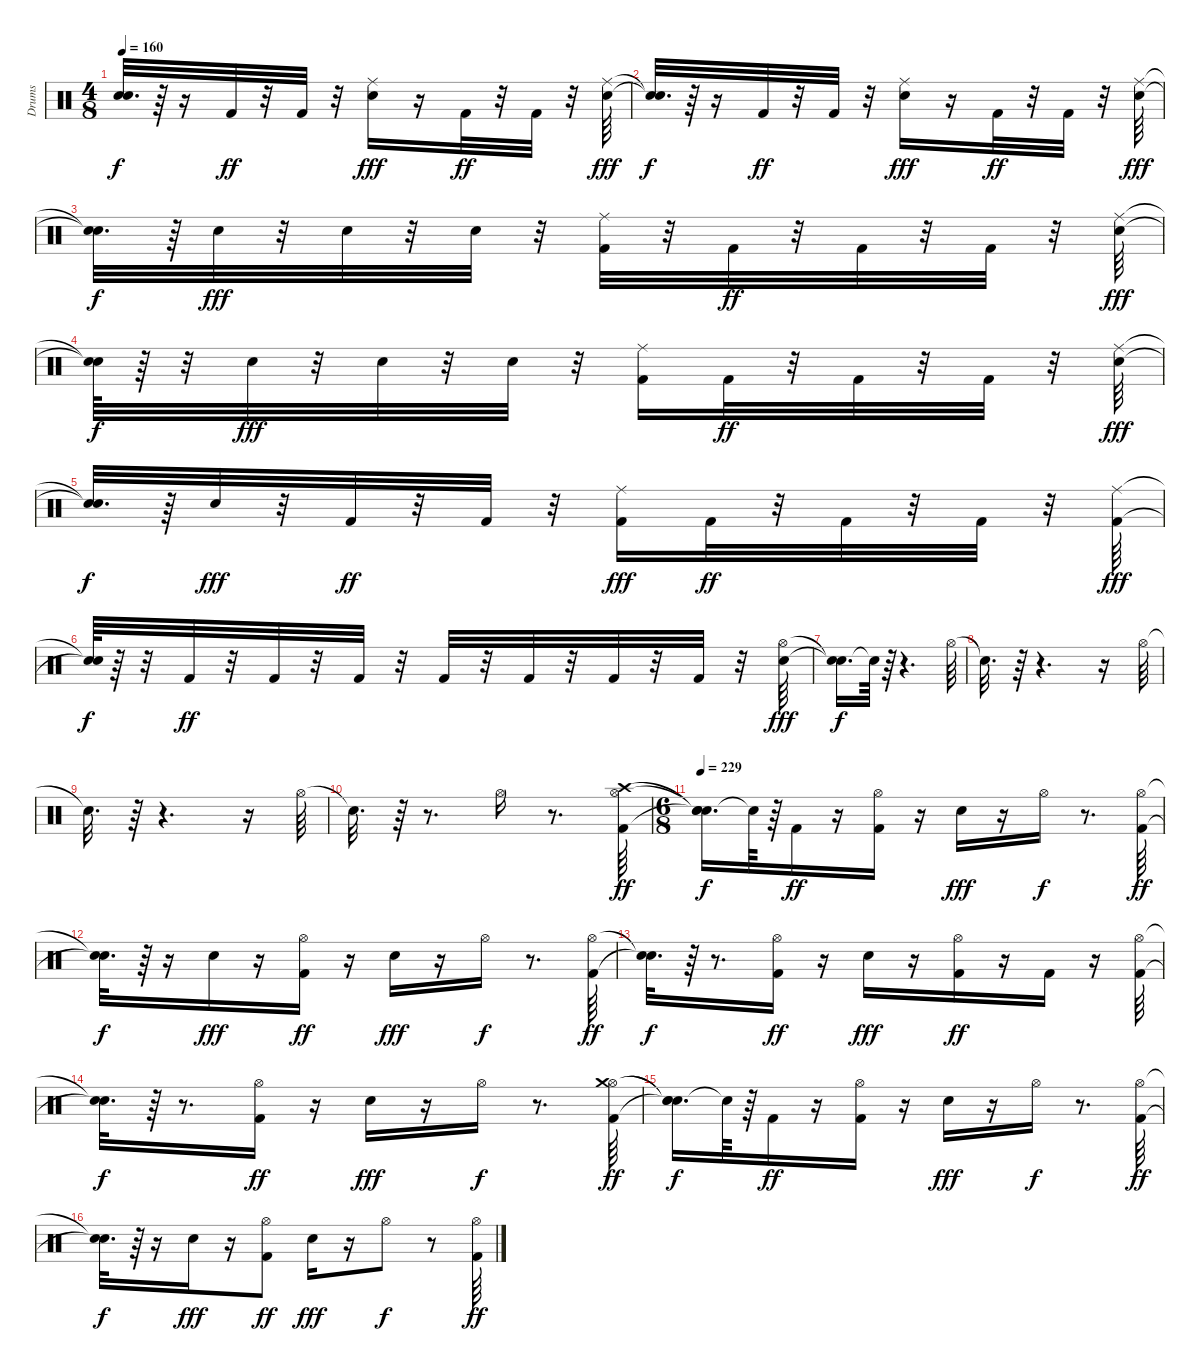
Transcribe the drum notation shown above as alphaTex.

\track ("Drums" "Drums") {instrument percussion}
\staff {score}
\articulation defaults
\ts (4 8)
\tempo 160
\clef neutral
\ks c
("Snare (hit)"{t} "Snare (hit)"{t}).32{d dy f} r.64 r.16 "Kick (hit) 2".32{dy ff} r.32 "Kick (hit) 2".32 r.32 ("Snare (hit) 2" "Ride (middle)").16{dy fff} r.16 "Kick (hit) 2".32{dy ff} r.32 "Kick (hit) 2".32 r.32 ("Snare (hit) 2" "Ride (middle)").64{dy fff} |
("Snare (hit)"{t} "Snare (hit)"{t}).32{d dy f} r.64 r.16 "Kick (hit) 2".32{dy ff} r.32 "Kick (hit) 2".32 r.32 ("Snare (hit) 2" "Ride (middle)").16{dy fff} r.16 "Kick (hit) 2".32{dy ff} r.32 "Kick (hit) 2".32 r.32 ("Snare (hit) 2" "Ride (middle)").64{dy fff} |
("Snare (hit)"{t} "Snare (hit)"{t}).32{d dy f} r.64 "Snare (hit) 2".32{dy fff} r.32 "Snare (hit) 2".32 r.32 "Snare (hit) 2".32 r.32 ("Kick (hit) 2" "Ride (middle)").32 r.32 "Kick (hit) 2".32{dy ff} r.32 "Kick (hit) 2".32 r.32 "Kick (hit) 2".32 r.32 ("Snare (hit) 2" "Ride (middle)").64{dy fff} |
("Snare (hit)"{t} "Snare (hit)"{t}).64{dy f} r.64 r.32 "Snare (hit) 2".32{dy fff} r.32 "Snare (hit) 2".32 r.32 "Snare (hit) 2".32 r.32 ("Kick (hit) 2" "Ride (middle)").16 "Kick (hit) 2".32{dy ff} r.32 "Kick (hit) 2".32 r.32 "Kick (hit) 2".32 r.32 ("Snare (hit) 2" "Ride (middle)").64{dy fff} |
("Snare (hit)"{t} "Snare (hit)"{t}).32{d dy f} r.64 "Snare (hit) 2".32{dy fff} r.32 "Kick (hit) 2".32{dy ff} r.32 "Kick (hit) 2".32 r.32 ("Kick (hit) 2" "Ride (middle)").16{dy fff} "Kick (hit) 2".32{dy ff} r.32 "Kick (hit) 2".32 r.32 "Kick (hit) 2".32 r.32 ("Kick (hit) 2" "Ride (middle)").64{dy fff} |
("Snare (hit)"{t} "Snare (hit)"{t}).64{dy f} r.64 r.32 "Kick (hit) 2".32{dy ff} r.32 "Kick (hit) 2".32 r.32 "Kick (hit) 2".32 r.32 "Kick (hit) 2".32 r.32 "Kick (hit) 2".32 r.32 "Kick (hit) 2".32 r.32 "Kick (hit) 2".32 r.32 ("Snare (hit) 2" "Hi-Hat (open)").64{dy fff} |
("Snare (hit)"{t} "Snare (hit)"{t}).16{d dy f} "Snare (hit)"{t}.64 r.64 r.4{d} "Hi-Hat (open)".64 |
"Snare (hit)"{t}.32{d} r.64 r.4{d} r.16 "Hi-Hat (open)".64 |
"Snare (hit)"{t}.32{d} r.64 r.4{d} r.16 "Hi-Hat (open)".64 |
"Snare (hit)"{t}.32{d} r.64 r.8{d} "Hi-Hat (open)".16 r.8{d} ("Kick (hit) 2" "Hi-Hat (open)" "Crash high (hit)").64{dy ff} |
\ts (6 8)
\tempo 229
("Snare (hit)"{t} "Snare (hit)"{t} "Snare (hit)"{t}).16{d dy f} "Snare (hit)"{t}.64 r.64 "Kick (hit) 2".16{dy ff} r.16 ("Kick (hit) 2" "Hi-Hat (open)").16 r.16 "Snare (hit) 2".16{dy fff} r.16 "Hi-Hat (open)".16{dy f} r.8{d} ("Kick (hit) 2" "Hi-Hat (open)").64{dy ff} |
("Snare (hit)"{t} "Snare (hit)"{t}).32{d dy f} r.64 r.16 "Snare (hit) 2".16{dy fff} r.16 ("Kick (hit) 2" "Hi-Hat (open)").16{dy ff} r.16 "Snare (hit) 2".16{dy fff} r.16 "Hi-Hat (open)".16{dy f} r.8{d} ("Kick (hit) 2" "Hi-Hat (open)").64{dy ff} |
("Snare (hit)"{t} "Snare (hit)"{t}).32{d dy f} r.64 r.8{d} ("Kick (hit) 2" "Hi-Hat (open)").16{dy ff} r.16 "Snare (hit) 2".16{dy fff} r.16 ("Kick (hit) 2" "Hi-Hat (open)").16{dy ff} r.16 "Kick (hit) 2".16 r.16 ("Kick (hit) 2" "Hi-Hat (open)").64 |
("Snare (hit)"{t} "Snare (hit)"{t}).32{d dy f} r.64 r.8{d} ("Kick (hit) 2" "Hi-Hat (open)").16{dy ff} r.16 "Snare (hit) 2".16{dy fff} r.16 "Hi-Hat (open)".16{dy f} r.8{d} ("Kick (hit) 2" "Hi-Hat (open)" "Crash medium (hit)").64{dy ff} |
("Snare (hit)"{t} "Snare (hit)"{t} "Snare (hit)"{t}).16{d dy f} "Snare (hit)"{t}.64 r.64 "Kick (hit) 2".16{dy ff} r.16 ("Kick (hit) 2" "Hi-Hat (open)").16 r.16 "Snare (hit) 2".16{dy fff} r.16 "Hi-Hat (open)".16{dy f} r.8{d} ("Kick (hit) 2" "Hi-Hat (open)").64{dy ff} |
("Snare (hit)"{t} "Snare (hit)"{t}).32{d dy f} r.64 r.16 "Snare (hit) 2".16{dy fff} r.16 ("Kick (hit) 2" "Hi-Hat (open)").8{dy ff} "Snare (hit) 2".16{dy fff} r.16 "Hi-Hat (open)".8{dy f} r.8 ("Kick (hit) 2" "Hi-Hat (open)").64{dy ff}
